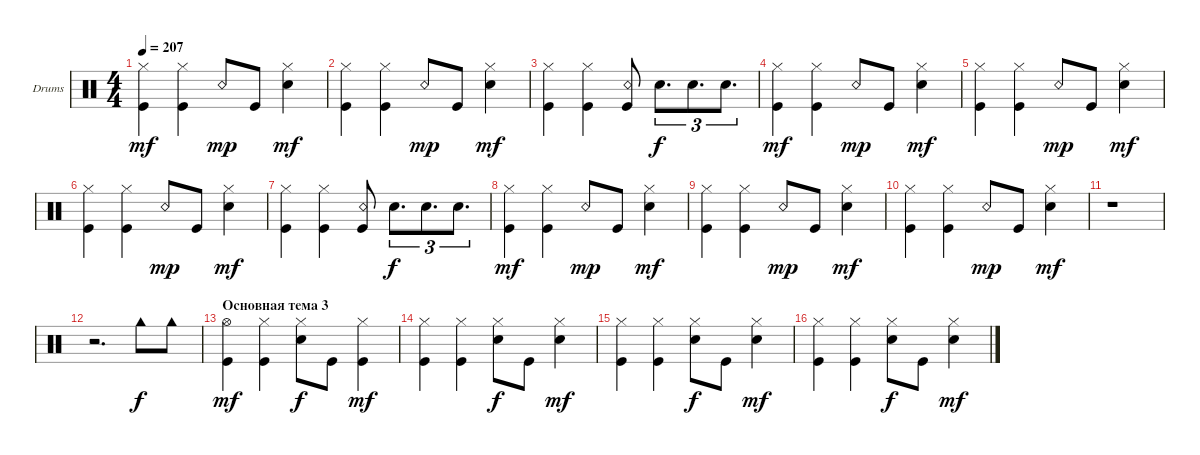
\defaultSystemsLayout 4
\bracketExtendMode groupsimilarinstruments
\firstSystemTrackNameOrientation horizontal
\otherSystemsTrackNameOrientation horizontal
\track ("Drumkit" "Drums") {instrument percussion}
\staff {score}
\articulation defaults
\ts (4 4)
\tempo 207
\clef neutral
\ks c
("Kick (hit)" "Hi-Hat (closed)").4{dy mf} ("Hi-Hat (closed)" "Kick (hit)").4 "Snare (rim shot)".8{dy mp} "Kick (hit)".8 ("Hi-Hat (closed)" "Snare (hit) 2").4{dy mf} |
("Kick (hit)" "Hi-Hat (closed)").4 ("Hi-Hat (closed)" "Kick (hit)").4 "Snare (rim shot)".8{dy mp} "Kick (hit)".8 ("Hi-Hat (closed)" "Snare (hit) 2").4{dy mf} |
("Kick (hit)" "Hi-Hat (closed)").4 ("Hi-Hat (closed)" "Kick (hit)").4 ("Kick (hit)" "Snare (rim shot)").8 "Snare (hit) 2".8{d tu (3 2) dy f} "Snare (hit) 2".8{d tu (3 2)} "Snare (hit) 2".8{d tu (3 2)} |
("Kick (hit)" "Hi-Hat (closed)").4{dy mf} ("Hi-Hat (closed)" "Kick (hit)").4 "Snare (rim shot)".8{dy mp} "Kick (hit)".8 ("Hi-Hat (closed)" "Snare (hit) 2").4{dy mf} |
("Kick (hit)" "Hi-Hat (closed)").4 ("Hi-Hat (closed)" "Kick (hit)").4 "Snare (rim shot)".8{dy mp} "Kick (hit)".8 ("Hi-Hat (closed)" "Snare (hit) 2").4{dy mf} |
("Kick (hit)" "Hi-Hat (closed)").4 ("Hi-Hat (closed)" "Kick (hit)").4 "Snare (rim shot)".8{dy mp} "Kick (hit)".8 ("Hi-Hat (closed)" "Snare (hit) 2").4{dy mf} |
("Kick (hit)" "Hi-Hat (closed)").4 ("Hi-Hat (closed)" "Kick (hit)").4 ("Kick (hit)" "Snare (rim shot)").8 "Snare (hit) 2".8{d tu (3 2) dy f} "Snare (hit) 2".8{d tu (3 2)} "Snare (hit) 2".8{d tu (3 2)} |
("Kick (hit)" "Hi-Hat (closed)").4{dy mf} ("Hi-Hat (closed)" "Kick (hit)").4 "Snare (rim shot)".8{dy mp} "Kick (hit)".8 ("Hi-Hat (closed)" "Snare (hit) 2").4{dy mf} |
("Kick (hit)" "Hi-Hat (closed)").4 ("Hi-Hat (closed)" "Kick (hit)").4 "Snare (rim shot)".8{dy mp} "Kick (hit)".8 ("Hi-Hat (closed)" "Snare (hit) 2").4{dy mf} |
("Kick (hit)" "Hi-Hat (closed)").4 ("Hi-Hat (closed)" "Kick (hit)").4 "Snare (rim shot)".8{dy mp} "Kick (hit)".8 ("Hi-Hat (closed)" "Snare (hit) 2").4{dy mf} |
r.1 |
r.2{d} "Cowbell high (hit)".8{dy f} "Cowbell high (hit)".8 |
\section ("" "Основная тема 3")
("Kick (hit)" "Hi-Hat (open)").4{dy mf} ("Hi-Hat (closed)" "Kick (hit)").4 ("Snare (hit) 2" "Hi-Hat (closed)").8{dy f} "Kick (hit)".8 ("Hi-Hat (closed)" "Kick (hit)").4{dy mf} |
("Kick (hit)" "Hi-Hat (closed)").4 ("Hi-Hat (closed)" "Kick (hit)").4 ("Snare (hit) 2" "Hi-Hat (closed)").8{dy f} "Kick (hit)".8 ("Hi-Hat (closed)" "Snare (hit) 2").4{dy mf} |
("Kick (hit)" "Hi-Hat (closed)").4 ("Hi-Hat (closed)" "Kick (hit)").4 ("Snare (hit) 2" "Hi-Hat (closed)").8{dy f} "Kick (hit)".8 ("Hi-Hat (closed)" "Snare (hit) 2").4{dy mf} |
("Kick (hit)" "Hi-Hat (closed)").4 ("Hi-Hat (closed)" "Kick (hit)").4 ("Snare (hit) 2" "Hi-Hat (closed)").8{dy f} "Kick (hit)".8 ("Hi-Hat (closed)" "Snare (hit) 2").4{dy mf}
